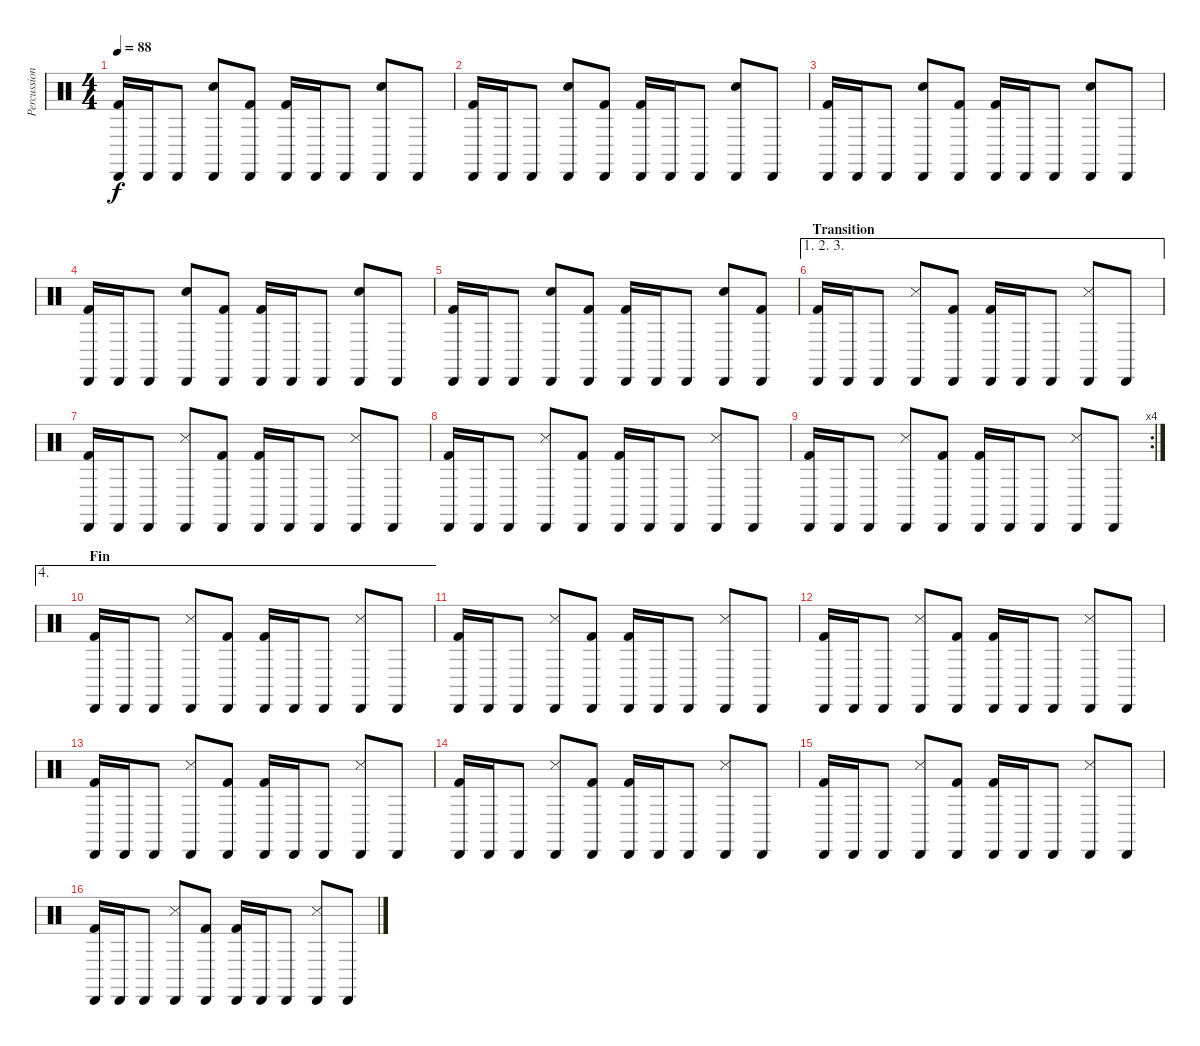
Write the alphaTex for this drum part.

\track ("Percussions" "Percussion") {instrument percussion}
\staff {score}
\articulation defaults
\ts (4 4)
\tempo 88
\clef neutral
\ks c
("Cabasa (hit)" "Kick (hit) 2").16{dy f} "Cabasa (hit)".16 "Cabasa (hit)".8 ("Cabasa (hit)" "Electric Snare (hit)").8 ("Cabasa (hit)" "Kick (hit) 2").8 ("Cabasa (hit)" "Kick (hit) 2").16 "Cabasa (hit)".16 "Cabasa (hit)".8 ("Cabasa (hit)" "Electric Snare (hit)").8 "Cabasa (hit)".8 |
("Cabasa (hit)" "Kick (hit) 2").16 "Cabasa (hit)".16 "Cabasa (hit)".8 ("Cabasa (hit)" "Electric Snare (hit)").8 ("Cabasa (hit)" "Kick (hit) 2").8 ("Cabasa (hit)" "Kick (hit) 2").16 "Cabasa (hit)".16 "Cabasa (hit)".8 ("Cabasa (hit)" "Electric Snare (hit)").8 "Cabasa (hit)".8 |
("Cabasa (hit)" "Kick (hit) 2").16 "Cabasa (hit)".16 "Cabasa (hit)".8 ("Cabasa (hit)" "Electric Snare (hit)").8 ("Cabasa (hit)" "Kick (hit) 2").8 ("Cabasa (hit)" "Kick (hit) 2").16 "Cabasa (hit)".16 "Cabasa (hit)".8 ("Cabasa (hit)" "Electric Snare (hit)").8 "Cabasa (hit)".8 |
("Cabasa (hit)" "Kick (hit) 2").16 "Cabasa (hit)".16 "Cabasa (hit)".8 ("Cabasa (hit)" "Electric Snare (hit)").8 ("Cabasa (hit)" "Kick (hit) 2").8 ("Cabasa (hit)" "Kick (hit) 2").16 "Cabasa (hit)".16 "Cabasa (hit)".8 ("Cabasa (hit)" "Electric Snare (hit)").8 "Cabasa (hit)".8 |
("Cabasa (hit)" "Kick (hit) 2").16 "Cabasa (hit)".16 "Cabasa (hit)".8 ("Cabasa (hit)" "Electric Snare (hit)").8 ("Cabasa (hit)" "Kick (hit) 2").8 ("Cabasa (hit)" "Kick (hit) 2").16 "Cabasa (hit)".16 "Cabasa (hit)".8 ("Cabasa (hit)" "Electric Snare (hit)").8 ("Cabasa (hit)" "Kick (hit) 2").8 |
\ae (1 2 3)
\section ("" "Transition")
("Cabasa (hit)" "Kick (hit) 2").16 "Cabasa (hit)".16 "Cabasa (hit)".8 ("Cabasa (hit)" "Snare (side stick) 3").8 ("Cabasa (hit)" "Kick (hit) 2").8 ("Cabasa (hit)" "Kick (hit) 2").16 "Cabasa (hit)".16 "Cabasa (hit)".8 ("Cabasa (hit)" "Snare (side stick) 3").8 "Cabasa (hit)".8 |
("Cabasa (hit)" "Kick (hit) 2").16 "Cabasa (hit)".16 "Cabasa (hit)".8 ("Cabasa (hit)" "Snare (side stick) 3").8 ("Cabasa (hit)" "Kick (hit) 2").8 ("Cabasa (hit)" "Kick (hit) 2").16 "Cabasa (hit)".16 "Cabasa (hit)".8 ("Cabasa (hit)" "Snare (side stick) 3").8 "Cabasa (hit)".8 |
("Cabasa (hit)" "Kick (hit) 2").16 "Cabasa (hit)".16 "Cabasa (hit)".8 ("Cabasa (hit)" "Snare (side stick) 3").8 ("Cabasa (hit)" "Kick (hit) 2").8 ("Cabasa (hit)" "Kick (hit) 2").16 "Cabasa (hit)".16 "Cabasa (hit)".8 ("Cabasa (hit)" "Snare (side stick) 3").8 "Cabasa (hit)".8 |
\rc 4
("Cabasa (hit)" "Kick (hit) 2").16 "Cabasa (hit)".16 "Cabasa (hit)".8 ("Cabasa (hit)" "Snare (side stick) 3").8 ("Cabasa (hit)" "Kick (hit) 2").8 ("Cabasa (hit)" "Kick (hit) 2").16 "Cabasa (hit)".16 "Cabasa (hit)".8 ("Cabasa (hit)" "Snare (side stick) 3").8 "Cabasa (hit)".8 |
\ae 4
\section ("" "Fin")
("Cabasa (hit)" "Kick (hit) 2").16 "Cabasa (hit)".16 "Cabasa (hit)".8 ("Cabasa (hit)" "Snare (side stick) 3").8 ("Cabasa (hit)" "Kick (hit) 2").8 ("Cabasa (hit)" "Kick (hit) 2").16 "Cabasa (hit)".16 "Cabasa (hit)".8 ("Cabasa (hit)" "Snare (side stick) 3").8 "Cabasa (hit)".8 |
("Cabasa (hit)" "Kick (hit) 2").16 "Cabasa (hit)".16 "Cabasa (hit)".8 ("Cabasa (hit)" "Snare (side stick) 3").8 ("Cabasa (hit)" "Kick (hit) 2").8 ("Cabasa (hit)" "Kick (hit) 2").16 "Cabasa (hit)".16 "Cabasa (hit)".8 ("Cabasa (hit)" "Snare (side stick) 3").8 "Cabasa (hit)".8 |
("Cabasa (hit)" "Kick (hit) 2").16 "Cabasa (hit)".16 "Cabasa (hit)".8 ("Cabasa (hit)" "Snare (side stick) 3").8 ("Cabasa (hit)" "Kick (hit) 2").8 ("Cabasa (hit)" "Kick (hit) 2").16 "Cabasa (hit)".16 "Cabasa (hit)".8 ("Cabasa (hit)" "Snare (side stick) 3").8 "Cabasa (hit)".8 |
("Cabasa (hit)" "Kick (hit) 2").16 "Cabasa (hit)".16 "Cabasa (hit)".8 ("Cabasa (hit)" "Snare (side stick) 3").8 ("Cabasa (hit)" "Kick (hit) 2").8 ("Cabasa (hit)" "Kick (hit) 2").16 "Cabasa (hit)".16 "Cabasa (hit)".8 ("Cabasa (hit)" "Snare (side stick) 3").8 "Cabasa (hit)".8 |
("Cabasa (hit)" "Kick (hit) 2").16 "Cabasa (hit)".16 "Cabasa (hit)".8 ("Cabasa (hit)" "Snare (side stick) 3").8 ("Cabasa (hit)" "Kick (hit) 2").8 ("Cabasa (hit)" "Kick (hit) 2").16 "Cabasa (hit)".16 "Cabasa (hit)".8 ("Cabasa (hit)" "Snare (side stick) 3").8 "Cabasa (hit)".8 |
("Cabasa (hit)" "Kick (hit) 2").16 "Cabasa (hit)".16 "Cabasa (hit)".8 ("Cabasa (hit)" "Snare (side stick) 3").8 ("Cabasa (hit)" "Kick (hit) 2").8 ("Cabasa (hit)" "Kick (hit) 2").16 "Cabasa (hit)".16 "Cabasa (hit)".8 ("Cabasa (hit)" "Snare (side stick) 3").8 "Cabasa (hit)".8 |
("Cabasa (hit)" "Kick (hit) 2").16{volume 11} "Cabasa (hit)".16 "Cabasa (hit)".8 ("Cabasa (hit)" "Snare (side stick) 3").8 ("Cabasa (hit)" "Kick (hit) 2").8{volume 10} ("Cabasa (hit)" "Kick (hit) 2").16 "Cabasa (hit)".16 "Cabasa (hit)".8 ("Cabasa (hit)" "Snare (side stick) 3").8 "Cabasa (hit)".8
